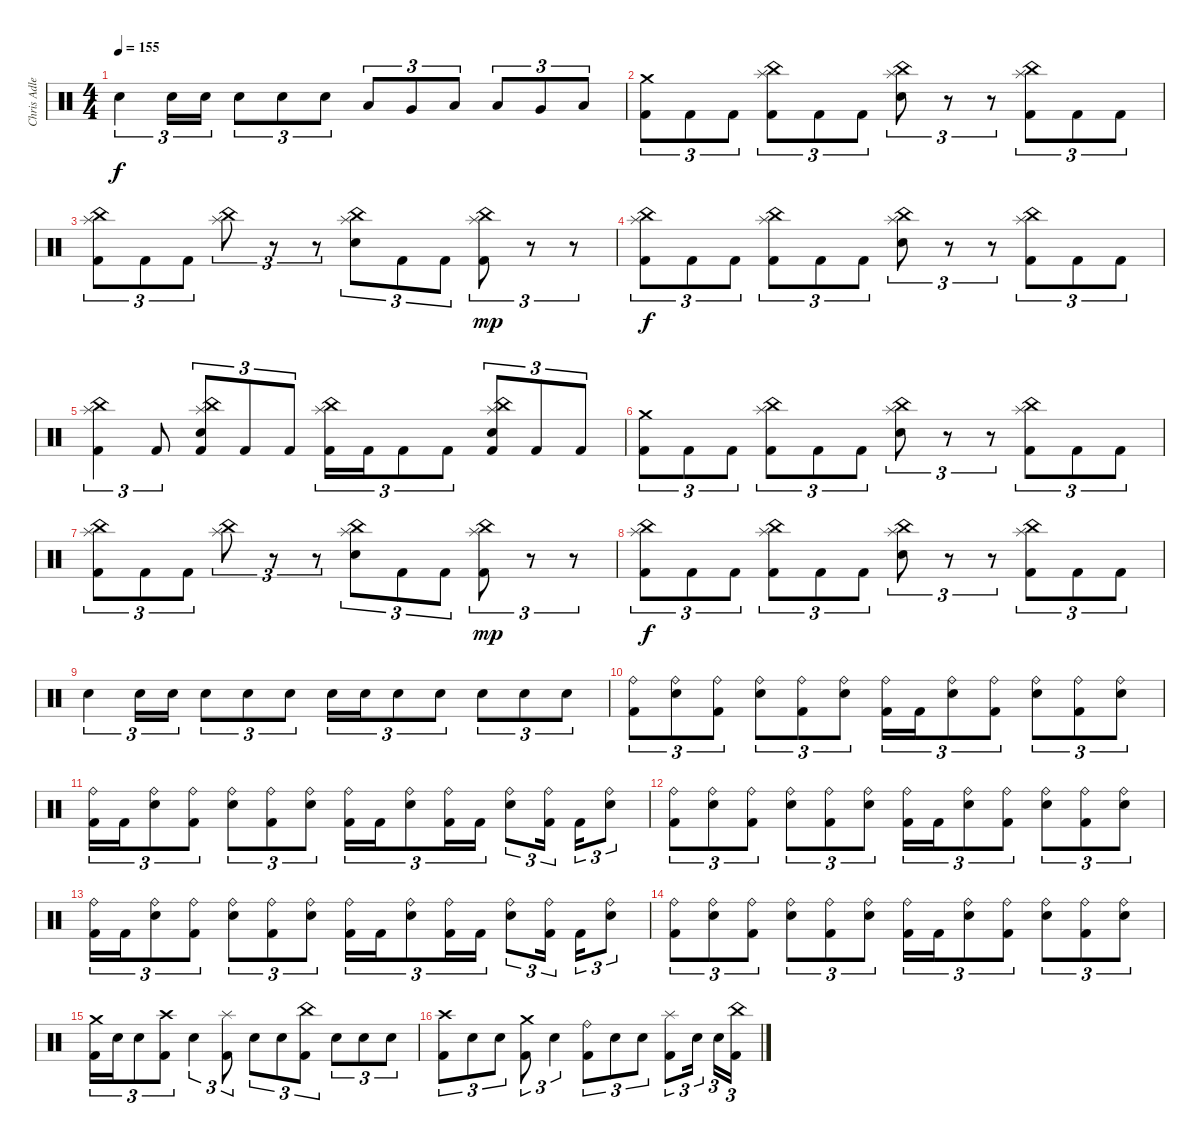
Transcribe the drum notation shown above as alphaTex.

\track ("Chris Adler" "Chris Adle") {instrument percussion}
\staff {score}
\articulation defaults
\ts (4 4)
\tempo 155
\clef neutral
\ks c "Electric Snare (hit)".4{tu (3 2) dy f} "Electric Snare (hit)".16{tu (3 2)} "Electric Snare (hit)".16{tu (3 2)} "Electric Snare (hit)".8{tu (3 2)} "Electric Snare (hit)".8{tu (3 2)} "Electric Snare (hit)".8{tu (3 2)} "Low Tom (hit)".8{tu (3 2)} "Very Low Tom (hit)".8{tu (3 2)} "Low Floor Tom (hit)".8{tu (3 2)} "Low Tom (hit)".8{tu (3 2)} "Very Low Tom (hit)".8{tu (3 2)} "Low Floor Tom (hit)".8{tu (3 2)}
|
("Crash medium (hit)" "Kick (hit) 2").8{tu (3 2)} "Kick (hit) 2".8{tu (3 2)} "Kick (hit) 2".8{tu (3 2)} ("China (hit)" "Splash (hit)" "Kick (hit) 2").8{tu (3 2)} "Kick (hit) 2".8{tu (3 2)} "Kick (hit) 2".8{tu (3 2)} ("China (hit)" "Splash (hit)" "Snare (hit) 2").8{tu (3 2)} r.8{tu (3 2)} r.8{tu (3 2)} ("China (hit)" "Splash (hit)" "Kick (hit) 2").8{tu (3 2)} "Kick (hit) 2".8{tu (3 2)} "Kick (hit) 2".8{tu (3 2)} |
("China (hit)" "Splash (hit)" "Kick (hit) 2").8{tu (3 2)} "Kick (hit) 2".8{tu (3 2)} "Kick (hit) 2".8{tu (3 2)} ("China (hit)" "Splash (hit)").8{tu (3 2)} r.8{tu (3 2)} r.8{tu (3 2)} ("China (hit)" "Splash (hit)" "Snare (hit) 2").8{tu (3 2)} "Kick (hit) 2".8{tu (3 2)} "Kick (hit) 2".8{tu (3 2)} ("China (hit)" "Splash (hit)" "Kick (hit) 2").8{tu (3 2) dy mp} r.8{tu (3 2)} r.8{tu (3 2)} |
("China (hit)" "Splash (hit)" "Kick (hit) 2").8{tu (3 2) dy f} "Kick (hit) 2".8{tu (3 2)} "Kick (hit) 2".8{tu (3 2)} ("China (hit)" "Splash (hit)" "Kick (hit) 2").8{tu (3 2)} "Kick (hit) 2".8{tu (3 2)} "Kick (hit) 2".8{tu (3 2)} ("China (hit)" "Splash (hit)" "Snare (hit) 2").8{tu (3 2)} r.8{tu (3 2)} r.8{tu (3 2)} ("China (hit)" "Splash (hit)" "Kick (hit) 2").8{tu (3 2)} "Kick (hit) 2".8{tu (3 2)} "Kick (hit) 2".8{tu (3 2)} |
("China (hit)" "Splash (hit)" "Kick (hit) 2").4{tu (3 2)} "Kick (hit) 2".8{tu (3 2)} ("China (hit)" "Splash (hit)" "Snare (hit) 2" "Kick (hit) 2").8{tu (3 2)} "Kick (hit) 2".8{tu (3 2)} "Kick (hit) 2".8{tu (3 2)} ("China (hit)" "Splash (hit)" "Kick (hit) 2").16{tu (3 2)} "Kick (hit) 2".16{tu (3 2)} "Kick (hit) 2".8{tu (3 2)} "Kick (hit) 2".8{tu (3 2)} ("China (hit)" "Splash (hit)" "Snare (hit) 2" "Kick (hit) 2").8{tu (3 2)} "Kick (hit) 2".8{tu (3 2)} "Kick (hit) 2".8{tu (3 2)} |
("Crash medium (hit)" "Kick (hit) 2").8{tu (3 2)} "Kick (hit) 2".8{tu (3 2)} "Kick (hit) 2".8{tu (3 2)} ("China (hit)" "Splash (hit)" "Kick (hit) 2").8{tu (3 2)} "Kick (hit) 2".8{tu (3 2)} "Kick (hit) 2".8{tu (3 2)} ("China (hit)" "Splash (hit)" "Snare (hit) 2").8{tu (3 2)} r.8{tu (3 2)} r.8{tu (3 2)} ("China (hit)" "Splash (hit)" "Kick (hit) 2").8{tu (3 2)} "Kick (hit) 2".8{tu (3 2)} "Kick (hit) 2".8{tu (3 2)} |
("China (hit)" "Splash (hit)" "Kick (hit) 2").8{tu (3 2)} "Kick (hit) 2".8{tu (3 2)} "Kick (hit) 2".8{tu (3 2)} ("China (hit)" "Splash (hit)").8{tu (3 2)} r.8{tu (3 2)} r.8{tu (3 2)} ("China (hit)" "Splash (hit)" "Snare (hit) 2").8{tu (3 2)} "Kick (hit) 2".8{tu (3 2)} "Kick (hit) 2".8{tu (3 2)} ("China (hit)" "Splash (hit)" "Kick (hit) 2").8{tu (3 2) dy mp} r.8{tu (3 2)} r.8{tu (3 2)} |
("China (hit)" "Splash (hit)" "Kick (hit) 2").8{tu (3 2) dy f} "Kick (hit) 2".8{tu (3 2)} "Kick (hit) 2".8{tu (3 2)} ("China (hit)" "Splash (hit)" "Kick (hit) 2").8{tu (3 2)} "Kick (hit) 2".8{tu (3 2)} "Kick (hit) 2".8{tu (3 2)} ("China (hit)" "Splash (hit)" "Snare (hit) 2").8{tu (3 2)} r.8{tu (3 2)} r.8{tu (3 2)} ("China (hit)" "Splash (hit)" "Kick (hit) 2").8{tu (3 2)} "Kick (hit) 2".8{tu (3 2)} "Kick (hit) 2".8{tu (3 2)} |
"Electric Snare (hit)".4{tu (3 2)} "Electric Snare (hit)".16{tu (3 2)} "Electric Snare (hit)".16{tu (3 2)} "Electric Snare (hit)".8{tu (3 2)} "Electric Snare (hit)".8{tu (3 2)} "Electric Snare (hit)".8{tu (3 2)} "Electric Snare (hit)".16{tu (3 2)} "Electric Snare (hit)".16{tu (3 2)} "Electric Snare (hit)".8{tu (3 2)} "Electric Snare (hit)".8{tu (3 2)} "Electric Snare (hit)".8{tu (3 2)} "Electric Snare (hit)".8{tu (3 2)} "Electric Snare (hit)".8{tu (3 2)} |
("Ride (bell)" "Kick (hit) 2").8{tu (3 2)} ("Ride (bell)" "Snare (hit) 2").8{tu (3 2)} ("Ride (bell)" "Kick (hit) 2").8{tu (3 2)} ("Ride (bell)" "Snare (hit) 2").8{tu (3 2)} ("Ride (bell)" "Kick (hit) 2").8{tu (3 2)} ("Ride (bell)" "Snare (hit) 2").8{tu (3 2)} ("Ride (bell)" "Kick (hit) 2").16{tu (3 2)} "Kick (hit) 2".16{tu (3 2)} ("Ride (bell)" "Snare (hit) 2").8{tu (3 2)} ("Ride (bell)" "Kick (hit) 2").8{tu (3 2)} ("Ride (bell)" "Snare (hit) 2").8{tu (3 2)} ("Ride (bell)" "Kick (hit) 2").8{tu (3 2)} ("Ride (bell)" "Snare (hit) 2").8{tu (3 2)} |
("Ride (bell)" "Kick (hit) 2").16{tu (3 2)} "Kick (hit) 2".16{tu (3 2)} ("Ride (bell)" "Snare (hit) 2").8{tu (3 2)} ("Ride (bell)" "Kick (hit) 2").8{tu (3 2)} ("Ride (bell)" "Snare (hit) 2").8{tu (3 2)} ("Ride (bell)" "Kick (hit) 2").8{tu (3 2)} ("Ride (bell)" "Snare (hit) 2").8{tu (3 2)} ("Ride (bell)" "Kick (hit) 2").16{tu (3 2)} "Kick (hit) 2".16{tu (3 2)} ("Ride (bell)" "Snare (hit) 2").8{tu (3 2)} ("Ride (bell)" "Kick (hit) 2").16{tu (3 2)} "Kick (hit) 2".16{tu (3 2)} ("Ride (bell)" "Snare (hit) 2").8{tu (3 2)} ("Ride (bell)" "Kick (hit) 2").16{tu (3 2) beam splitsecondary} "Kick (hit) 2".16{tu (3 2)} ("Ride (bell)" "Snare (hit) 2").8{tu (3 2)} |
("Ride (bell)" "Kick (hit) 2").8{tu (3 2)} ("Ride (bell)" "Snare (hit) 2").8{tu (3 2)} ("Ride (bell)" "Kick (hit) 2").8{tu (3 2)} ("Ride (bell)" "Snare (hit) 2").8{tu (3 2)} ("Ride (bell)" "Kick (hit) 2").8{tu (3 2)} ("Ride (bell)" "Snare (hit) 2").8{tu (3 2)} ("Ride (bell)" "Kick (hit) 2").16{tu (3 2)} "Kick (hit) 2".16{tu (3 2)} ("Ride (bell)" "Snare (hit) 2").8{tu (3 2)} ("Ride (bell)" "Kick (hit) 2").8{tu (3 2)} ("Ride (bell)" "Snare (hit) 2").8{tu (3 2)} ("Ride (bell)" "Kick (hit) 2").8{tu (3 2)} ("Ride (bell)" "Snare (hit) 2").8{tu (3 2)} |
("Ride (bell)" "Kick (hit) 2").16{tu (3 2)} "Kick (hit) 2".16{tu (3 2)} ("Ride (bell)" "Snare (hit) 2").8{tu (3 2)} ("Ride (bell)" "Kick (hit) 2").8{tu (3 2)} ("Ride (bell)" "Snare (hit) 2").8{tu (3 2)} ("Ride (bell)" "Kick (hit) 2").8{tu (3 2)} ("Ride (bell)" "Snare (hit) 2").8{tu (3 2)} ("Ride (bell)" "Kick (hit) 2").16{tu (3 2)} "Kick (hit) 2".16{tu (3 2)} ("Ride (bell)" "Snare (hit) 2").8{tu (3 2)} ("Ride (bell)" "Kick (hit) 2").16{tu (3 2)} "Kick (hit) 2".16{tu (3 2)} ("Ride (bell)" "Snare (hit) 2").8{tu (3 2)} ("Ride (bell)" "Kick (hit) 2").16{tu (3 2) beam splitsecondary} "Kick (hit) 2".16{tu (3 2)} ("Ride (bell)" "Snare (hit) 2").8{tu (3 2)} |
("Ride (bell)" "Kick (hit) 2").8{tu (3 2)} ("Ride (bell)" "Snare (hit) 2").8{tu (3 2)} ("Ride (bell)" "Kick (hit) 2").8{tu (3 2)} ("Ride (bell)" "Snare (hit) 2").8{tu (3 2)} ("Ride (bell)" "Kick (hit) 2").8{tu (3 2)} ("Ride (bell)" "Snare (hit) 2").8{tu (3 2)} ("Ride (bell)" "Kick (hit) 2").16{tu (3 2)} "Kick (hit) 2".16{tu (3 2)} ("Ride (bell)" "Snare (hit) 2").8{tu (3 2)} ("Ride (bell)" "Kick (hit) 2").8{tu (3 2)} ("Ride (bell)" "Snare (hit) 2").8{tu (3 2)} ("Ride (bell)" "Kick (hit) 2").8{tu (3 2)} ("Ride (bell)" "Snare (hit) 2").8{tu (3 2)} |
("Kick (hit) 2" "Crash medium (hit)").16{tu (3 2)} "Electric Snare (hit)".16{tu (3 2)} "Electric Snare (hit)".8{tu (3 2)} ("Kick (hit) 2" "Crash high (hit)").8{tu (3 2)} "Electric Snare (hit)".4{tu (3 2)} ("Kick (hit) 2" "Splash (hit)").8{tu (3 2)} "Electric Snare (hit)".8{tu (3 2)} "Electric Snare (hit)".8{tu (3 2)} ("Kick (hit) 2" "China (hit)").8{tu (3 2)} "Electric Snare (hit)".8{tu (3 2)} "Electric Snare (hit)".8{tu (3 2)} "Electric Snare (hit)".8{tu (3 2)} |
("Kick (hit) 2" "Crash high (hit)").8{tu (3 2)} "Electric Snare (hit)".8{tu (3 2)} "Electric Snare (hit)".8{tu (3 2)} ("Kick (hit) 2" "Crash medium (hit)").8{tu (3 2)} "Electric Snare (hit)".4{tu (3 2)} ("Kick (hit) 2" "Ride (bell)").8{tu (3 2)} "Electric Snare (hit)".8{tu (3 2)} "Electric Snare (hit)".8{tu (3 2)} ("Kick (hit) 2" "Splash (hit)").8{tu (3 2)} "Electric Snare (hit)".16{tu (3 2) beam splitsecondary} "Electric Snare (hit)".16{tu (3 2)} ("Kick (hit) 2" "China (hit)").16{tu (3 2)}
